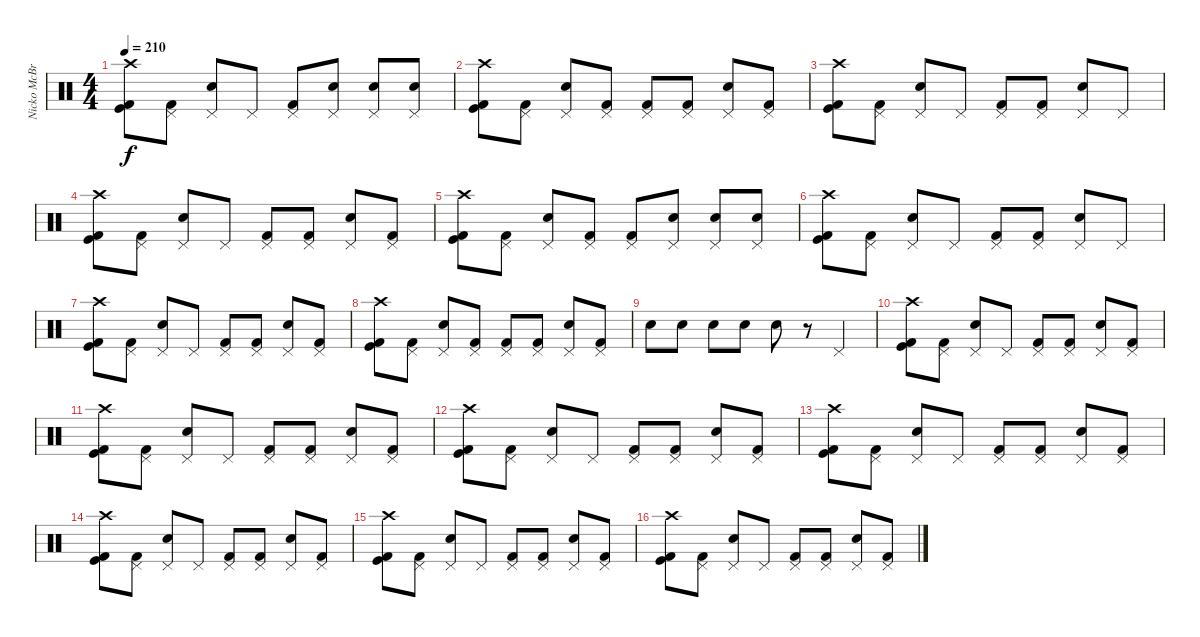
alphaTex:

\track ("Nicko McBrain" "Nicko McBr") {instrument percussion}
\staff {score}
\articulation defaults
\ts (4 4)
\tempo 210
\clef neutral
\ks c
("Crash high (hit)" "Kick (hit)" "Kick (hit) 2").8{dy f} ("Pedal Hi-Hat (hit)" "Kick (hit) 2").8 ("Pedal Hi-Hat (hit)" "Snare (hit) 2").8 "Pedal Hi-Hat (hit)".8 ("Pedal Hi-Hat (hit)" "Kick (hit) 2").8 ("Pedal Hi-Hat (hit)" "Snare (hit) 2").8 ("Pedal Hi-Hat (hit)" "Snare (hit) 2").8 ("Pedal Hi-Hat (hit)" "Snare (hit) 2").8 |
("Crash high (hit)" "Kick (hit)" "Kick (hit) 2").8 ("Pedal Hi-Hat (hit)" "Kick (hit) 2").8 ("Pedal Hi-Hat (hit)" "Snare (hit) 2").8 ("Pedal Hi-Hat (hit)" "Kick (hit) 2").8 ("Pedal Hi-Hat (hit)" "Kick (hit) 2").8 ("Pedal Hi-Hat (hit)" "Kick (hit) 2").8 ("Pedal Hi-Hat (hit)" "Snare (hit) 2").8 ("Pedal Hi-Hat (hit)" "Kick (hit) 2").8 |
("Crash high (hit)" "Kick (hit)" "Kick (hit) 2").8 ("Pedal Hi-Hat (hit)" "Kick (hit) 2").8 ("Pedal Hi-Hat (hit)" "Snare (hit) 2").8 "Pedal Hi-Hat (hit)".8 ("Pedal Hi-Hat (hit)" "Kick (hit) 2").8 ("Pedal Hi-Hat (hit)" "Kick (hit) 2").8 ("Pedal Hi-Hat (hit)" "Snare (hit) 2").8 "Pedal Hi-Hat (hit)".8 |
("Crash high (hit)" "Kick (hit)" "Kick (hit) 2").8 ("Pedal Hi-Hat (hit)" "Kick (hit) 2").8 ("Pedal Hi-Hat (hit)" "Snare (hit) 2").8 "Pedal Hi-Hat (hit)".8 ("Pedal Hi-Hat (hit)" "Kick (hit) 2").8 ("Pedal Hi-Hat (hit)" "Kick (hit) 2").8 ("Pedal Hi-Hat (hit)" "Snare (hit) 2").8 ("Pedal Hi-Hat (hit)" "Kick (hit) 2").8 |
("Crash high (hit)" "Kick (hit)" "Kick (hit) 2").8 ("Pedal Hi-Hat (hit)" "Kick (hit) 2").8 ("Pedal Hi-Hat (hit)" "Snare (hit) 2").8 ("Pedal Hi-Hat (hit)" "Kick (hit) 2").8 ("Pedal Hi-Hat (hit)" "Kick (hit) 2").8 ("Pedal Hi-Hat (hit)" "Snare (hit) 2").8 ("Pedal Hi-Hat (hit)" "Snare (hit) 2").8 ("Pedal Hi-Hat (hit)" "Snare (hit) 2").8 |
("Crash high (hit)" "Kick (hit)" "Kick (hit) 2").8 ("Pedal Hi-Hat (hit)" "Kick (hit) 2").8 ("Pedal Hi-Hat (hit)" "Snare (hit) 2").8 "Pedal Hi-Hat (hit)".8 ("Pedal Hi-Hat (hit)" "Kick (hit) 2").8 ("Pedal Hi-Hat (hit)" "Kick (hit) 2").8 ("Pedal Hi-Hat (hit)" "Snare (hit) 2").8 "Pedal Hi-Hat (hit)".8 |
("Crash high (hit)" "Kick (hit)" "Kick (hit) 2").8 ("Pedal Hi-Hat (hit)" "Kick (hit) 2").8 ("Pedal Hi-Hat (hit)" "Snare (hit) 2").8 "Pedal Hi-Hat (hit)".8 ("Pedal Hi-Hat (hit)" "Kick (hit) 2").8 ("Pedal Hi-Hat (hit)" "Kick (hit) 2").8 ("Pedal Hi-Hat (hit)" "Snare (hit) 2").8 ("Pedal Hi-Hat (hit)" "Kick (hit) 2").8 |
("Crash high (hit)" "Kick (hit)" "Kick (hit) 2").8 ("Pedal Hi-Hat (hit)" "Kick (hit) 2").8 ("Pedal Hi-Hat (hit)" "Snare (hit) 2").8 ("Pedal Hi-Hat (hit)" "Kick (hit) 2").8 ("Pedal Hi-Hat (hit)" "Kick (hit) 2").8 ("Pedal Hi-Hat (hit)" "Kick (hit) 2").8 ("Pedal Hi-Hat (hit)" "Snare (hit) 2").8 ("Pedal Hi-Hat (hit)" "Kick (hit) 2").8 |
"Snare (hit) 2".8 "Snare (hit) 2".8 "Snare (hit) 2".8 "Snare (hit) 2".8 "Snare (hit) 2".8 r.8 "Pedal Hi-Hat (hit)".4 |
("Crash high (hit)" "Kick (hit)" "Kick (hit) 2").8 ("Pedal Hi-Hat (hit)" "Kick (hit) 2").8 ("Pedal Hi-Hat (hit)" "Snare (hit) 2").8 "Pedal Hi-Hat (hit)".8 ("Pedal Hi-Hat (hit)" "Kick (hit) 2").8 ("Pedal Hi-Hat (hit)" "Kick (hit) 2").8 ("Pedal Hi-Hat (hit)" "Snare (hit) 2").8 ("Pedal Hi-Hat (hit)" "Kick (hit) 2").8 |
("Crash high (hit)" "Kick (hit)" "Kick (hit) 2").8 ("Pedal Hi-Hat (hit)" "Kick (hit) 2").8 ("Pedal Hi-Hat (hit)" "Snare (hit) 2").8 "Pedal Hi-Hat (hit)".8 ("Pedal Hi-Hat (hit)" "Kick (hit) 2").8 ("Pedal Hi-Hat (hit)" "Kick (hit) 2").8 ("Pedal Hi-Hat (hit)" "Snare (hit) 2").8 ("Pedal Hi-Hat (hit)" "Kick (hit) 2").8 |
("Crash high (hit)" "Kick (hit)" "Kick (hit) 2").8 ("Pedal Hi-Hat (hit)" "Kick (hit) 2").8 ("Pedal Hi-Hat (hit)" "Snare (hit) 2").8 "Pedal Hi-Hat (hit)".8 ("Pedal Hi-Hat (hit)" "Kick (hit) 2").8 ("Pedal Hi-Hat (hit)" "Kick (hit) 2").8 ("Pedal Hi-Hat (hit)" "Snare (hit) 2").8 ("Pedal Hi-Hat (hit)" "Kick (hit) 2").8 |
("Crash high (hit)" "Kick (hit)" "Kick (hit) 2").8 ("Pedal Hi-Hat (hit)" "Kick (hit) 2").8 ("Pedal Hi-Hat (hit)" "Snare (hit) 2").8 "Pedal Hi-Hat (hit)".8 ("Pedal Hi-Hat (hit)" "Kick (hit) 2").8 ("Pedal Hi-Hat (hit)" "Kick (hit) 2").8 ("Pedal Hi-Hat (hit)" "Snare (hit) 2").8 ("Pedal Hi-Hat (hit)" "Kick (hit) 2").8 |
("Crash high (hit)" "Kick (hit)" "Kick (hit) 2").8 ("Pedal Hi-Hat (hit)" "Kick (hit) 2").8 ("Pedal Hi-Hat (hit)" "Snare (hit) 2").8 "Pedal Hi-Hat (hit)".8 ("Pedal Hi-Hat (hit)" "Kick (hit) 2").8 ("Pedal Hi-Hat (hit)" "Kick (hit) 2").8 ("Pedal Hi-Hat (hit)" "Snare (hit) 2").8 ("Pedal Hi-Hat (hit)" "Kick (hit) 2").8 |
("Crash high (hit)" "Kick (hit)" "Kick (hit) 2").8 ("Pedal Hi-Hat (hit)" "Kick (hit) 2").8 ("Pedal Hi-Hat (hit)" "Snare (hit) 2").8 "Pedal Hi-Hat (hit)".8 ("Pedal Hi-Hat (hit)" "Kick (hit) 2").8 ("Pedal Hi-Hat (hit)" "Kick (hit) 2").8 ("Pedal Hi-Hat (hit)" "Snare (hit) 2").8 ("Pedal Hi-Hat (hit)" "Kick (hit) 2").8 |
("Crash high (hit)" "Kick (hit)" "Kick (hit) 2").8 ("Pedal Hi-Hat (hit)" "Kick (hit) 2").8 ("Pedal Hi-Hat (hit)" "Snare (hit) 2").8 "Pedal Hi-Hat (hit)".8 ("Pedal Hi-Hat (hit)" "Kick (hit) 2").8 ("Pedal Hi-Hat (hit)" "Kick (hit) 2").8 ("Pedal Hi-Hat (hit)" "Snare (hit) 2").8 ("Pedal Hi-Hat (hit)" "Kick (hit) 2").8
